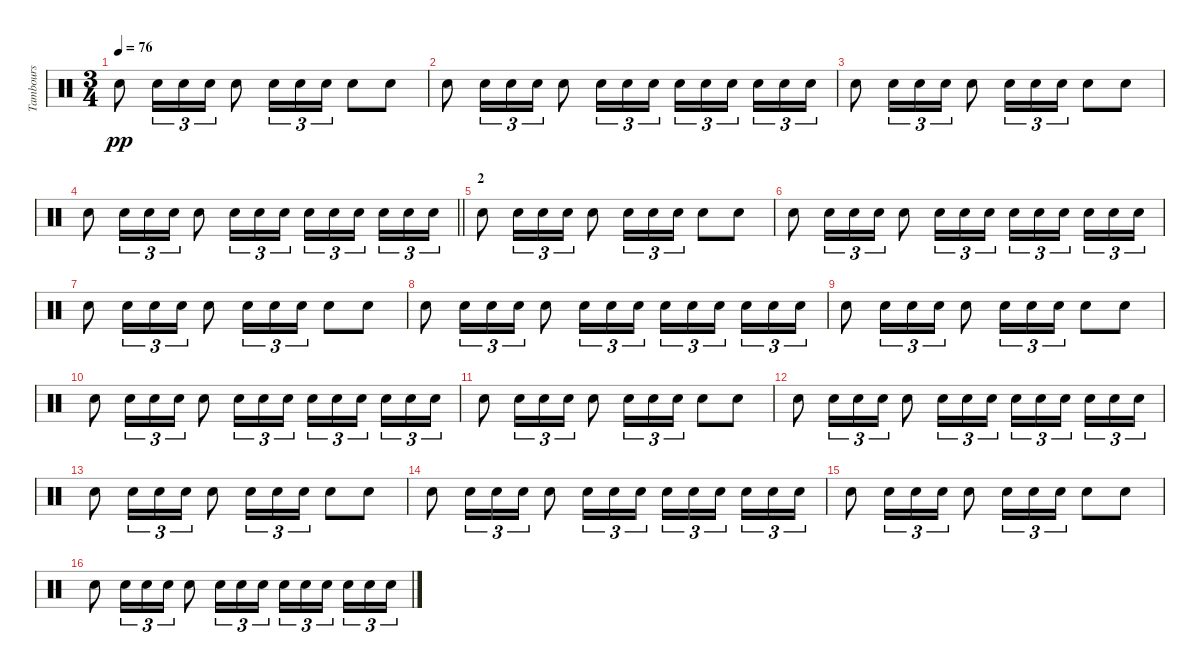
\track ("Tambours" "Tambours") {instrument percussion}
\staff {score}
\articulation defaults
\ts (3 4)
\tempo 76
\clef neutral
\ks c "Snare (hit) 2".8{dy pp} "Snare (hit) 2".16{tu (3 2)} "Snare (hit) 2".16{tu (3 2)} "Snare (hit) 2".16{tu (3 2)} "Snare (hit) 2".8 "Snare (hit) 2".16{tu (3 2)} "Snare (hit) 2".16{tu (3 2)} "Snare (hit) 2".16{tu (3 2)} "Snare (hit) 2".8 "Snare (hit) 2".8
|
"Snare (hit) 2".8 "Snare (hit) 2".16{tu (3 2)} "Snare (hit) 2".16{tu (3 2)} "Snare (hit) 2".16{tu (3 2)} "Snare (hit) 2".8 "Snare (hit) 2".16{tu (3 2)} "Snare (hit) 2".16{tu (3 2)} "Snare (hit) 2".16{tu (3 2)} "Snare (hit) 2".16{tu (3 2)} "Snare (hit) 2".16{tu (3 2)} "Snare (hit) 2".16{tu (3 2) beam splitsecondary} "Snare (hit) 2".16{tu (3 2)} "Snare (hit) 2".16{tu (3 2)} "Snare (hit) 2".16{tu (3 2)} |
"Snare (hit) 2".8 "Snare (hit) 2".16{tu (3 2)} "Snare (hit) 2".16{tu (3 2)} "Snare (hit) 2".16{tu (3 2)} "Snare (hit) 2".8 "Snare (hit) 2".16{tu (3 2)} "Snare (hit) 2".16{tu (3 2)} "Snare (hit) 2".16{tu (3 2)} "Snare (hit) 2".8 "Snare (hit) 2".8 |
\barLineRight lightlight "Snare (hit) 2".8 "Snare (hit) 2".16{tu (3 2)} "Snare (hit) 2".16{tu (3 2)} "Snare (hit) 2".16{tu (3 2)} "Snare (hit) 2".8 "Snare (hit) 2".16{tu (3 2)} "Snare (hit) 2".16{tu (3 2)} "Snare (hit) 2".16{tu (3 2)} "Snare (hit) 2".16{tu (3 2)} "Snare (hit) 2".16{tu (3 2)} "Snare (hit) 2".16{tu (3 2) beam splitsecondary} "Snare (hit) 2".16{tu (3 2)} "Snare (hit) 2".16{tu (3 2)} "Snare (hit) 2".16{tu (3 2)}
|
\section ("" "2")
"Snare (hit) 2".8 "Snare (hit) 2".16{tu (3 2)} "Snare (hit) 2".16{tu (3 2)} "Snare (hit) 2".16{tu (3 2)} "Snare (hit) 2".8 "Snare (hit) 2".16{tu (3 2)} "Snare (hit) 2".16{tu (3 2)} "Snare (hit) 2".16{tu (3 2)} "Snare (hit) 2".8 "Snare (hit) 2".8 |
"Snare (hit) 2".8 "Snare (hit) 2".16{tu (3 2)} "Snare (hit) 2".16{tu (3 2)} "Snare (hit) 2".16{tu (3 2)} "Snare (hit) 2".8 "Snare (hit) 2".16{tu (3 2)} "Snare (hit) 2".16{tu (3 2)} "Snare (hit) 2".16{tu (3 2)} "Snare (hit) 2".16{tu (3 2)} "Snare (hit) 2".16{tu (3 2)} "Snare (hit) 2".16{tu (3 2) beam splitsecondary} "Snare (hit) 2".16{tu (3 2)} "Snare (hit) 2".16{tu (3 2)} "Snare (hit) 2".16{tu (3 2)} |
"Snare (hit) 2".8 "Snare (hit) 2".16{tu (3 2)} "Snare (hit) 2".16{tu (3 2)} "Snare (hit) 2".16{tu (3 2)} "Snare (hit) 2".8 "Snare (hit) 2".16{tu (3 2)} "Snare (hit) 2".16{tu (3 2)} "Snare (hit) 2".16{tu (3 2)} "Snare (hit) 2".8 "Snare (hit) 2".8 |
"Snare (hit) 2".8 "Snare (hit) 2".16{tu (3 2)} "Snare (hit) 2".16{tu (3 2)} "Snare (hit) 2".16{tu (3 2)} "Snare (hit) 2".8 "Snare (hit) 2".16{tu (3 2)} "Snare (hit) 2".16{tu (3 2)} "Snare (hit) 2".16{tu (3 2)} "Snare (hit) 2".16{tu (3 2)} "Snare (hit) 2".16{tu (3 2)} "Snare (hit) 2".16{tu (3 2) beam splitsecondary} "Snare (hit) 2".16{tu (3 2)} "Snare (hit) 2".16{tu (3 2)} "Snare (hit) 2".16{tu (3 2)} |
"Snare (hit) 2".8 "Snare (hit) 2".16{tu (3 2)} "Snare (hit) 2".16{tu (3 2)} "Snare (hit) 2".16{tu (3 2)} "Snare (hit) 2".8 "Snare (hit) 2".16{tu (3 2)} "Snare (hit) 2".16{tu (3 2)} "Snare (hit) 2".16{tu (3 2)} "Snare (hit) 2".8 "Snare (hit) 2".8 |
"Snare (hit) 2".8 "Snare (hit) 2".16{tu (3 2)} "Snare (hit) 2".16{tu (3 2)} "Snare (hit) 2".16{tu (3 2)} "Snare (hit) 2".8 "Snare (hit) 2".16{tu (3 2)} "Snare (hit) 2".16{tu (3 2)} "Snare (hit) 2".16{tu (3 2)} "Snare (hit) 2".16{tu (3 2)} "Snare (hit) 2".16{tu (3 2)} "Snare (hit) 2".16{tu (3 2) beam splitsecondary} "Snare (hit) 2".16{tu (3 2)} "Snare (hit) 2".16{tu (3 2)} "Snare (hit) 2".16{tu (3 2)} |
"Snare (hit) 2".8 "Snare (hit) 2".16{tu (3 2)} "Snare (hit) 2".16{tu (3 2)} "Snare (hit) 2".16{tu (3 2)} "Snare (hit) 2".8 "Snare (hit) 2".16{tu (3 2)} "Snare (hit) 2".16{tu (3 2)} "Snare (hit) 2".16{tu (3 2)} "Snare (hit) 2".8 "Snare (hit) 2".8 |
"Snare (hit) 2".8 "Snare (hit) 2".16{tu (3 2)} "Snare (hit) 2".16{tu (3 2)} "Snare (hit) 2".16{tu (3 2)} "Snare (hit) 2".8 "Snare (hit) 2".16{tu (3 2)} "Snare (hit) 2".16{tu (3 2)} "Snare (hit) 2".16{tu (3 2)} "Snare (hit) 2".16{tu (3 2)} "Snare (hit) 2".16{tu (3 2)} "Snare (hit) 2".16{tu (3 2) beam splitsecondary} "Snare (hit) 2".16{tu (3 2)} "Snare (hit) 2".16{tu (3 2)} "Snare (hit) 2".16{tu (3 2)} |
"Snare (hit) 2".8 "Snare (hit) 2".16{tu (3 2)} "Snare (hit) 2".16{tu (3 2)} "Snare (hit) 2".16{tu (3 2)} "Snare (hit) 2".8 "Snare (hit) 2".16{tu (3 2)} "Snare (hit) 2".16{tu (3 2)} "Snare (hit) 2".16{tu (3 2)} "Snare (hit) 2".8 "Snare (hit) 2".8 |
"Snare (hit) 2".8 "Snare (hit) 2".16{tu (3 2)} "Snare (hit) 2".16{tu (3 2)} "Snare (hit) 2".16{tu (3 2)} "Snare (hit) 2".8 "Snare (hit) 2".16{tu (3 2)} "Snare (hit) 2".16{tu (3 2)} "Snare (hit) 2".16{tu (3 2)} "Snare (hit) 2".16{tu (3 2)} "Snare (hit) 2".16{tu (3 2)} "Snare (hit) 2".16{tu (3 2) beam splitsecondary} "Snare (hit) 2".16{tu (3 2)} "Snare (hit) 2".16{tu (3 2)} "Snare (hit) 2".16{tu (3 2)} |
"Snare (hit) 2".8 "Snare (hit) 2".16{tu (3 2)} "Snare (hit) 2".16{tu (3 2)} "Snare (hit) 2".16{tu (3 2)} "Snare (hit) 2".8 "Snare (hit) 2".16{tu (3 2)} "Snare (hit) 2".16{tu (3 2)} "Snare (hit) 2".16{tu (3 2)} "Snare (hit) 2".8 "Snare (hit) 2".8 |
"Snare (hit) 2".8 "Snare (hit) 2".16{tu (3 2)} "Snare (hit) 2".16{tu (3 2)} "Snare (hit) 2".16{tu (3 2)} "Snare (hit) 2".8 "Snare (hit) 2".16{tu (3 2)} "Snare (hit) 2".16{tu (3 2)} "Snare (hit) 2".16{tu (3 2)} "Snare (hit) 2".16{tu (3 2)} "Snare (hit) 2".16{tu (3 2)} "Snare (hit) 2".16{tu (3 2) beam splitsecondary} "Snare (hit) 2".16{tu (3 2)} "Snare (hit) 2".16{tu (3 2)} "Snare (hit) 2".16{tu (3 2)}
